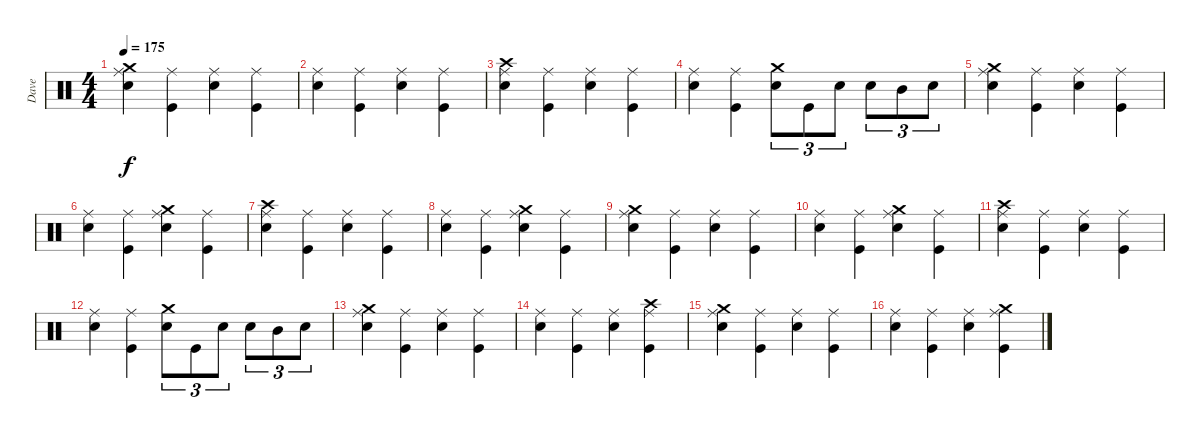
\track ("Dave" "Dave") {instrument percussion}
\staff {score}
\articulation defaults
\ts (4 4)
\tempo 175
\clef neutral
\ks c
("Crash medium (hit)" "Ride (middle)" "Snare (hit) 2").4{dy f} ("Ride (middle)" "Kick (hit)").4 ("Ride (middle)" "Snare (hit) 2").4 ("Ride (middle)" "Kick (hit)").4 |
("Ride (middle)" "Snare (hit) 2").4 ("Ride (middle)" "Kick (hit)").4 ("Ride (middle)" "Snare (hit) 2").4 ("Ride (middle)" "Kick (hit)").4 |
("Crash high (hit)" "Ride (middle)" "Snare (hit) 2").4 ("Ride (middle)" "Kick (hit)").4 ("Ride (middle)" "Snare (hit) 2").4 ("Ride (middle)" "Kick (hit)").4 |
("Ride (middle)" "Snare (hit) 2").4 ("Ride (middle)" "Kick (hit)").4 ("Crash medium (hit)" "Snare (hit) 2").8{tu (3 2)} "Kick (hit)".8{tu (3 2)} "Snare (hit) 2".8{tu (3 2)} "Snare (hit) 2".8{tu (3 2)} "Mid Tom (hit)".8{tu (3 2)} "Snare (hit) 2".8{tu (3 2)} |
("Crash medium (hit)" "Ride (middle)" "Snare (hit) 2").4 ("Ride (middle)" "Kick (hit)").4 ("Ride (middle)" "Snare (hit) 2").4 ("Ride (middle)" "Kick (hit)").4 |
("Ride (middle)" "Snare (hit) 2").4 ("Ride (middle)" "Kick (hit)").4 ("Crash medium (hit)" "Ride (middle)" "Snare (hit) 2").4 ("Ride (middle)" "Kick (hit)").4 |
("Crash high (hit)" "Ride (middle)" "Snare (hit) 2").4 ("Ride (middle)" "Kick (hit)").4 ("Ride (middle)" "Snare (hit) 2").4 ("Ride (middle)" "Kick (hit)").4 |
("Ride (middle)" "Snare (hit) 2").4 ("Ride (middle)" "Kick (hit)").4 ("Crash medium (hit)" "Ride (middle)" "Snare (hit) 2").4 ("Ride (middle)" "Kick (hit)").4 |
("Crash medium (hit)" "Ride (middle)" "Snare (hit) 2").4 ("Ride (middle)" "Kick (hit)").4 ("Ride (middle)" "Snare (hit) 2").4 ("Ride (middle)" "Kick (hit)").4 |
("Ride (middle)" "Snare (hit) 2").4 ("Ride (middle)" "Kick (hit)").4 ("Crash medium (hit)" "Ride (middle)" "Snare (hit) 2").4 ("Ride (middle)" "Kick (hit)").4 |
("Crash high (hit)" "Ride (middle)" "Snare (hit) 2").4 ("Ride (middle)" "Kick (hit)").4 ("Ride (middle)" "Snare (hit) 2").4 ("Ride (middle)" "Kick (hit)").4 |
("Ride (middle)" "Snare (hit) 2").4 ("Ride (middle)" "Kick (hit)").4 ("Crash medium (hit)" "Snare (hit) 2").8{tu (3 2)} "Kick (hit)".8{tu (3 2)} "Snare (hit) 2".8{tu (3 2)} "Snare (hit) 2".8{tu (3 2)} "Mid Tom (hit)".8{tu (3 2)} "Snare (hit) 2".8{tu (3 2)} |
("Crash medium (hit)" "Ride (middle)" "Snare (hit) 2").4 ("Ride (middle)" "Kick (hit)").4 ("Ride (middle)" "Snare (hit) 2").4 ("Ride (middle)" "Kick (hit)").4 |
("Ride (middle)" "Snare (hit) 2").4 ("Ride (middle)" "Kick (hit)").4 ("Ride (middle)" "Snare (hit) 2").4 ("Crash high (hit)" "Ride (middle)" "Kick (hit)").4 |
("Crash medium (hit)" "Ride (middle)" "Snare (hit) 2").4 ("Ride (middle)" "Kick (hit)").4 ("Ride (middle)" "Snare (hit) 2").4 ("Ride (middle)" "Kick (hit)").4 |
("Ride (middle)" "Snare (hit) 2").4 ("Ride (middle)" "Kick (hit)").4 ("Ride (middle)" "Snare (hit) 2").4 ("Crash medium (hit)" "Ride (middle)" "Kick (hit)").4
